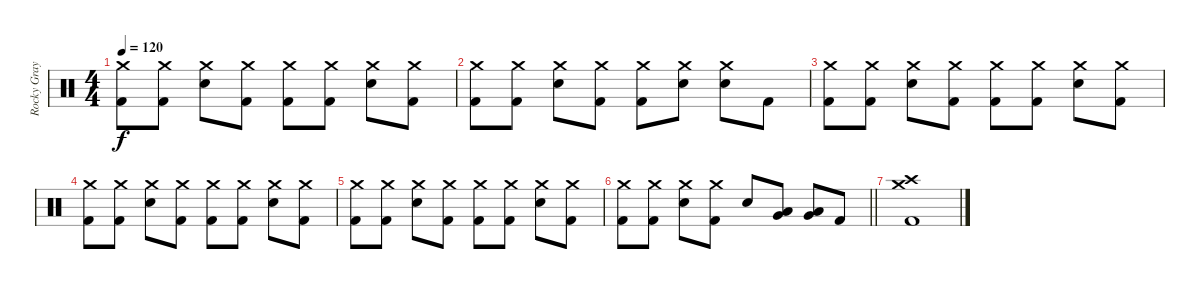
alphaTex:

\track ("Rocky Gray" "Rocky Gray") {instrument percussion}
\staff {score}
\articulation defaults
\ts (4 4)
\tempo 120
\clef neutral
\ks c
("Crash medium (hit)" "Kick (hit) 2").8{dy f} ("Crash medium (hit)" "Kick (hit) 2").8 ("Crash medium (hit)" "Electric Snare (hit)").8 ("Crash medium (hit)" "Kick (hit) 2").8 ("Crash medium (hit)" "Kick (hit) 2").8 ("Crash medium (hit)" "Kick (hit) 2").8 ("Crash medium (hit)" "Electric Snare (hit)").8 ("Crash medium (hit)" "Kick (hit) 2").8 |
("Crash medium (hit)" "Kick (hit) 2").8 ("Crash medium (hit)" "Kick (hit) 2").8 ("Crash medium (hit)" "Electric Snare (hit)").8 ("Crash medium (hit)" "Kick (hit) 2").8 ("Crash medium (hit)" "Kick (hit) 2").8 ("Crash medium (hit)" "Electric Snare (hit)").8 ("Crash medium (hit)" "Electric Snare (hit)").8 "Kick (hit) 2".8 |
("Crash medium (hit)" "Kick (hit) 2").8 ("Crash medium (hit)" "Kick (hit) 2").8 ("Crash medium (hit)" "Electric Snare (hit)").8 ("Crash medium (hit)" "Kick (hit) 2").8 ("Crash medium (hit)" "Kick (hit) 2").8 ("Crash medium (hit)" "Kick (hit) 2").8 ("Crash medium (hit)" "Electric Snare (hit)").8 ("Crash medium (hit)" "Kick (hit) 2").8 |
("Crash medium (hit)" "Kick (hit) 2").8 ("Crash medium (hit)" "Kick (hit) 2").8 ("Crash medium (hit)" "Electric Snare (hit)").8 ("Crash medium (hit)" "Kick (hit) 2").8 ("Crash medium (hit)" "Kick (hit) 2").8 ("Crash medium (hit)" "Kick (hit) 2").8 ("Crash medium (hit)" "Electric Snare (hit)").8 ("Crash medium (hit)" "Kick (hit) 2").8 |
("Crash medium (hit)" "Kick (hit) 2").8 ("Crash medium (hit)" "Kick (hit) 2").8 ("Crash medium (hit)" "Electric Snare (hit)").8 ("Crash medium (hit)" "Kick (hit) 2").8 ("Crash medium (hit)" "Kick (hit) 2").8 ("Crash medium (hit)" "Kick (hit) 2").8 ("Crash medium (hit)" "Electric Snare (hit)").8 ("Crash medium (hit)" "Kick (hit) 2").8 |
\barLineRight lightlight
("Crash medium (hit)" "Kick (hit) 2").8 ("Crash medium (hit)" "Kick (hit) 2").8 ("Crash medium (hit)" "Electric Snare (hit)").8 ("Crash medium (hit)" "Kick (hit) 2").8 "Electric Snare (hit)".8 ("Low Tom (hit)" "Very Low Tom (hit)").8 ("Very Low Tom (hit)" "Low Floor Tom (hit)").8 "Kick (hit) 2".8 |
("Crash high (hit)" "Crash medium (hit)" "Kick (hit) 2").1
